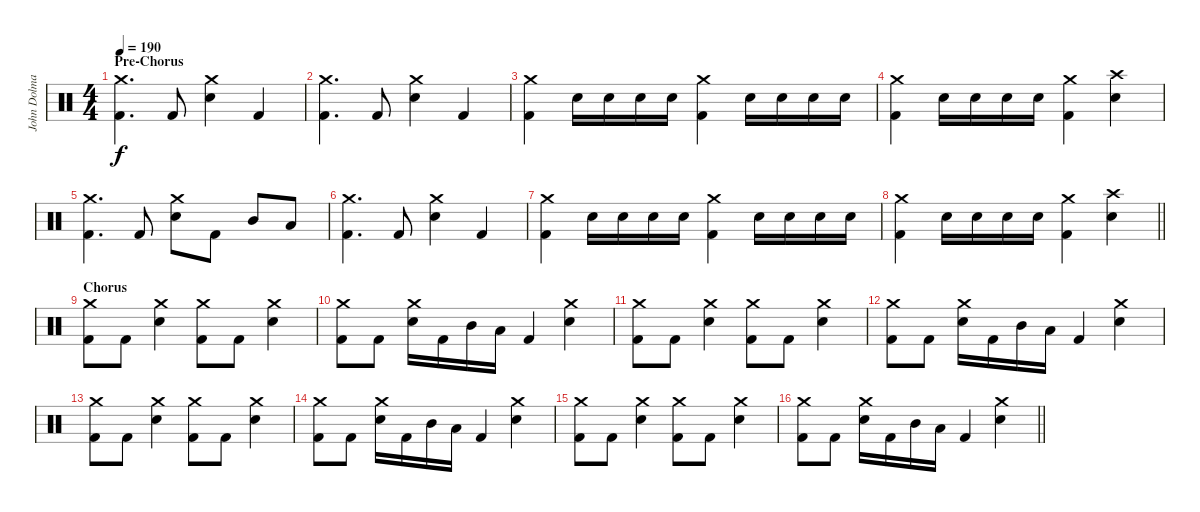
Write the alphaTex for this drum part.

\track ("John Dolmayan" "John Dolma") {instrument percussion}
\staff {score}
\articulation defaults
\ts (4 4)
\section ("" "Pre-Chorus")
\tempo 190
\clef neutral
\ks c
("Crash medium (hit)" "Kick (hit) 2").4{d dy f} "Kick (hit) 2".8 ("Crash medium (hit)" "Electric Snare (hit)").4 "Kick (hit) 2".4 |
("Crash medium (hit)" "Kick (hit) 2").4{d} "Kick (hit) 2".8 ("Crash medium (hit)" "Electric Snare (hit)").4 "Kick (hit) 2".4 |
("Crash medium (hit)" "Kick (hit) 2").4 "Electric Snare (hit)".16 "Electric Snare (hit)".16 "Electric Snare (hit)".16 "Electric Snare (hit)".16 ("Crash medium (hit)" "Kick (hit) 2").4 "Electric Snare (hit)".16 "Electric Snare (hit)".16 "Electric Snare (hit)".16 "Electric Snare (hit)".16 |
("Crash medium (hit)" "Kick (hit) 2").4 "Electric Snare (hit)".16 "Electric Snare (hit)".16 "Electric Snare (hit)".16 "Electric Snare (hit)".16 ("Crash medium (hit)" "Kick (hit) 2").4 ("Crash high (hit)" "Electric Snare (hit)").4 |
("Crash medium (hit)" "Kick (hit) 2").4{d} "Kick (hit) 2".8 ("Crash medium (hit)" "Electric Snare (hit)").8 "Kick (hit) 2".8 "Mid Tom (hit)".8 "Low Floor Tom (hit)".8 |
("Crash medium (hit)" "Kick (hit) 2").4{d} "Kick (hit) 2".8 ("Crash medium (hit)" "Electric Snare (hit)").4 "Kick (hit) 2".4 |
("Crash medium (hit)" "Kick (hit) 2").4 "Electric Snare (hit)".16 "Electric Snare (hit)".16 "Electric Snare (hit)".16 "Electric Snare (hit)".16 ("Crash medium (hit)" "Kick (hit) 2").4 "Electric Snare (hit)".16 "Electric Snare (hit)".16 "Electric Snare (hit)".16 "Electric Snare (hit)".16 |
\barLineRight lightlight
("Crash medium (hit)" "Kick (hit) 2").4 "Electric Snare (hit)".16 "Electric Snare (hit)".16 "Electric Snare (hit)".16 "Electric Snare (hit)".16 ("Crash medium (hit)" "Kick (hit) 2").4 ("Crash high (hit)" "Electric Snare (hit)").4 |
\section ("" "Chorus")
("Crash medium (hit)" "Kick (hit) 2").8 "Kick (hit) 2".8 ("Crash medium (hit)" "Electric Snare (hit)").4 ("Crash medium (hit)" "Kick (hit) 2").8 "Kick (hit) 2".8 ("Crash medium (hit)" "Electric Snare (hit)").4 |
("Crash medium (hit)" "Kick (hit) 2").8 "Kick (hit) 2".8 ("Crash medium (hit)" "Electric Snare (hit)").16 "Kick (hit) 2".16 "Mid Tom (hit)".16 "Low Floor Tom (hit)".16 "Kick (hit) 2".4 ("Crash medium (hit)" "Electric Snare (hit)").4 |
("Crash medium (hit)" "Kick (hit) 2").8 "Kick (hit) 2".8 ("Crash medium (hit)" "Electric Snare (hit)").4 ("Crash medium (hit)" "Kick (hit) 2").8 "Kick (hit) 2".8 ("Crash medium (hit)" "Electric Snare (hit)").4 |
("Crash medium (hit)" "Kick (hit) 2").8 "Kick (hit) 2".8 ("Crash medium (hit)" "Electric Snare (hit)").16 "Kick (hit) 2".16 "Mid Tom (hit)".16 "Low Floor Tom (hit)".16 "Kick (hit) 2".4 ("Crash medium (hit)" "Electric Snare (hit)").4 |
("Crash medium (hit)" "Kick (hit) 2").8 "Kick (hit) 2".8 ("Crash medium (hit)" "Electric Snare (hit)").4 ("Crash medium (hit)" "Kick (hit) 2").8 "Kick (hit) 2".8 ("Crash medium (hit)" "Electric Snare (hit)").4 |
("Crash medium (hit)" "Kick (hit) 2").8 "Kick (hit) 2".8 ("Crash medium (hit)" "Electric Snare (hit)").16 "Kick (hit) 2".16 "Mid Tom (hit)".16 "Low Floor Tom (hit)".16 "Kick (hit) 2".4 ("Crash medium (hit)" "Electric Snare (hit)").4 |
("Crash medium (hit)" "Kick (hit) 2").8 "Kick (hit) 2".8 ("Crash medium (hit)" "Electric Snare (hit)").4 ("Crash medium (hit)" "Kick (hit) 2").8 "Kick (hit) 2".8 ("Crash medium (hit)" "Electric Snare (hit)").4 |
\barLineRight lightlight
("Crash medium (hit)" "Kick (hit) 2").8 "Kick (hit) 2".8 ("Crash medium (hit)" "Electric Snare (hit)").16 "Kick (hit) 2".16 "Mid Tom (hit)".16 "Low Floor Tom (hit)".16 "Kick (hit) 2".4 ("Crash medium (hit)" "Electric Snare (hit)").4
